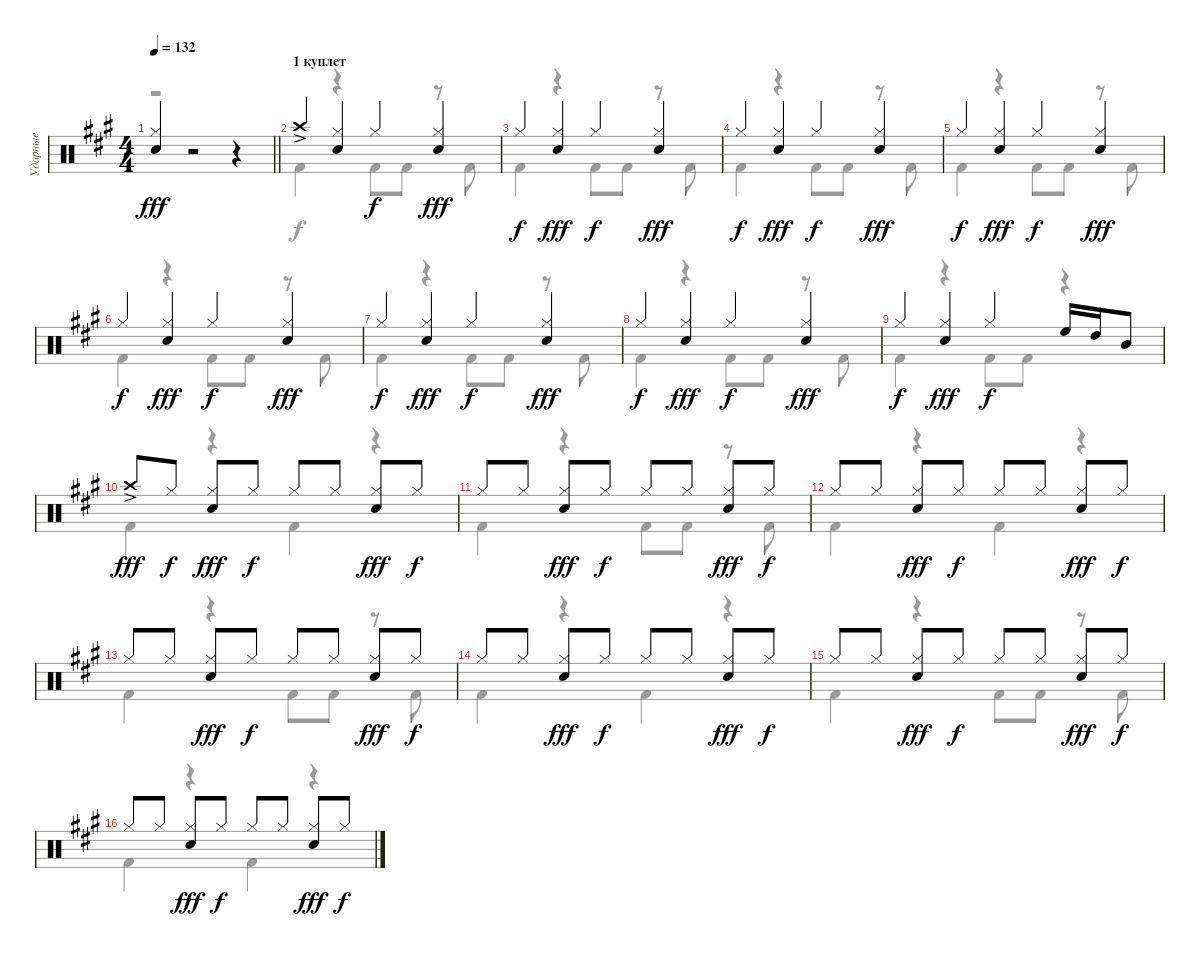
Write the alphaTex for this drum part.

\track ("Ударные" "Ударные") {instrument percussion}
\staff {score}
\articulation defaults
\voice
\ts (4 4)
\tempo 132
\clef neutral
\barLineRight lightlight
\ks a
("Hi-Hat (closed)" "Electric Snare (hit)").4{dy fff} r.2 r.4 |
\section ("" "1 куплет")
"Crash high (hit)"{ac}.4 ("Electric Snare (hit)" "Hi-Hat (closed)").4 "Hi-Hat (closed)".4{dy f} ("Electric Snare (hit)" "Hi-Hat (closed)").4{dy fff} |
"Hi-Hat (closed)".4{dy f} ("Electric Snare (hit)" "Hi-Hat (closed)").4{dy fff} "Hi-Hat (closed)".4{dy f} ("Electric Snare (hit)" "Hi-Hat (closed)").4{dy fff} |
"Hi-Hat (closed)".4{dy f} ("Electric Snare (hit)" "Hi-Hat (closed)").4{dy fff} "Hi-Hat (closed)".4{dy f} ("Electric Snare (hit)" "Hi-Hat (closed)").4{dy fff} |
"Hi-Hat (closed)".4{dy f} ("Electric Snare (hit)" "Hi-Hat (closed)").4{dy fff} "Hi-Hat (closed)".4{dy f} ("Electric Snare (hit)" "Hi-Hat (closed)").4{dy fff} |
"Hi-Hat (closed)".4{dy f} ("Electric Snare (hit)" "Hi-Hat (closed)").4{dy fff} "Hi-Hat (closed)".4{dy f} ("Electric Snare (hit)" "Hi-Hat (closed)").4{dy fff} |
"Hi-Hat (closed)".4{dy f} ("Electric Snare (hit)" "Hi-Hat (closed)").4{dy fff} "Hi-Hat (closed)".4{dy f} ("Electric Snare (hit)" "Hi-Hat (closed)").4{dy fff} |
"Hi-Hat (closed)".4{dy f} ("Electric Snare (hit)" "Hi-Hat (closed)").4{dy fff} "Hi-Hat (closed)".4{dy f} ("Electric Snare (hit)" "Hi-Hat (closed)").4{dy fff} |
"Hi-Hat (closed)".4{dy f} ("Electric Snare (hit)" "Hi-Hat (closed)").4{dy fff} "Hi-Hat (closed)".4{dy f} "High Floor Tom (hit)".16 "High Tom (hit)".16 "Mid Tom (hit)".8 |
"Crash high (hit)"{ac}.8{dy fff} "Hi-Hat (closed)".8{dy f} ("Electric Snare (hit)" "Hi-Hat (closed)").8{dy fff} "Hi-Hat (closed)".8{dy f} "Hi-Hat (closed)".8 "Hi-Hat (closed)".8 ("Electric Snare (hit)" "Hi-Hat (closed)").8{dy fff} "Hi-Hat (closed)".8{dy f} |
"Hi-Hat (closed)".8 "Hi-Hat (closed)".8 ("Electric Snare (hit)" "Hi-Hat (closed)").8{dy fff} "Hi-Hat (closed)".8{dy f} "Hi-Hat (closed)".8 "Hi-Hat (closed)".8 ("Electric Snare (hit)" "Hi-Hat (closed)").8{dy fff} "Hi-Hat (closed)".8{dy f} |
"Hi-Hat (closed)".8 "Hi-Hat (closed)".8 ("Electric Snare (hit)" "Hi-Hat (closed)").8{dy fff} "Hi-Hat (closed)".8{dy f} "Hi-Hat (closed)".8 "Hi-Hat (closed)".8 ("Electric Snare (hit)" "Hi-Hat (closed)").8{dy fff} "Hi-Hat (closed)".8{dy f} |
"Hi-Hat (closed)".8 "Hi-Hat (closed)".8 ("Electric Snare (hit)" "Hi-Hat (closed)").8{dy fff} "Hi-Hat (closed)".8{dy f} "Hi-Hat (closed)".8 "Hi-Hat (closed)".8 ("Electric Snare (hit)" "Hi-Hat (closed)").8{dy fff} "Hi-Hat (closed)".8{dy f} |
"Hi-Hat (closed)".8 "Hi-Hat (closed)".8 ("Electric Snare (hit)" "Hi-Hat (closed)").8{dy fff} "Hi-Hat (closed)".8{dy f} "Hi-Hat (closed)".8 "Hi-Hat (closed)".8 ("Electric Snare (hit)" "Hi-Hat (closed)").8{dy fff} "Hi-Hat (closed)".8{dy f} |
"Hi-Hat (closed)".8 "Hi-Hat (closed)".8 ("Electric Snare (hit)" "Hi-Hat (closed)").8{dy fff} "Hi-Hat (closed)".8{dy f} "Hi-Hat (closed)".8 "Hi-Hat (closed)".8 ("Electric Snare (hit)" "Hi-Hat (closed)").8{dy fff} "Hi-Hat (closed)".8{dy f} |
"Hi-Hat (closed)".8 "Hi-Hat (closed)".8 ("Electric Snare (hit)" "Hi-Hat (closed)").8{dy fff} "Hi-Hat (closed)".8{dy f} "Hi-Hat (closed)".8 "Hi-Hat (closed)".8 ("Electric Snare (hit)" "Hi-Hat (closed)").8{dy fff} "Hi-Hat (closed)".8{dy f}
\voice
\clef neutral
\ottava regular
\simile none
\barLineRight lightlight
\ks a
r.1{dy f} |
"Kick (hit) 2".4 r.4 "Kick (hit) 2".8 "Kick (hit) 2".8 r.8 "Kick (hit) 2".8 |
"Kick (hit) 2".4 r.4 "Kick (hit) 2".8 "Kick (hit) 2".8 r.8 "Kick (hit) 2".8 |
"Kick (hit) 2".4 r.4 "Kick (hit) 2".8 "Kick (hit) 2".8 r.8 "Kick (hit) 2".8 |
"Kick (hit) 2".4 r.4 "Kick (hit) 2".8 "Kick (hit) 2".8 r.8 "Kick (hit) 2".8 |
"Kick (hit) 2".4 r.4 "Kick (hit) 2".8 "Kick (hit) 2".8 r.8 "Kick (hit) 2".8 |
"Kick (hit) 2".4 r.4 "Kick (hit) 2".8 "Kick (hit) 2".8 r.8 "Kick (hit) 2".8 |
"Kick (hit) 2".4 r.4 "Kick (hit) 2".8 "Kick (hit) 2".8 r.8 "Kick (hit) 2".8 |
"Kick (hit) 2".4 r.4 "Kick (hit) 2".8 "Kick (hit) 2".8 r.4 |
"Kick (hit) 2".4 r.4 "Kick (hit) 2".4 r.4 |
"Kick (hit) 2".4 r.4 "Kick (hit) 2".8 "Kick (hit) 2".8 r.8 "Kick (hit) 2".8 |
"Kick (hit) 2".4 r.4 "Kick (hit) 2".4 r.4 |
"Kick (hit) 2".4 r.4 "Kick (hit) 2".8 "Kick (hit) 2".8 r.8 "Kick (hit) 2".8 |
"Kick (hit) 2".4 r.4 "Kick (hit) 2".4 r.4 |
"Kick (hit) 2".4 r.4 "Kick (hit) 2".8 "Kick (hit) 2".8 r.8 "Kick (hit) 2".8 |
"Kick (hit) 2".4 r.4 "Kick (hit) 2".4 r.4
